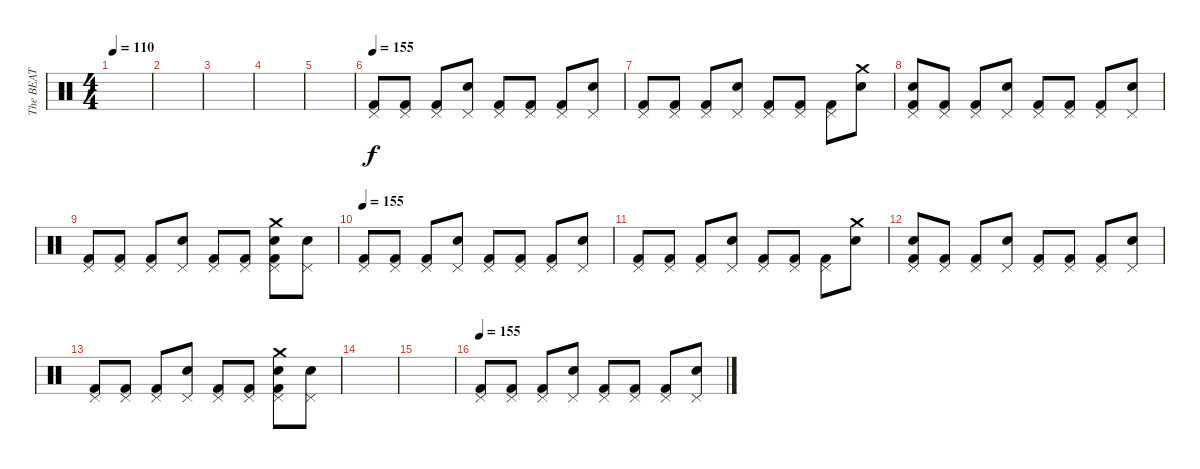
\track ("The BEAT" "The BEAT") {instrument percussion}
\staff {score}
\articulation defaults
\ts (4 4)
\tempo 110
\clef neutral
\ks c
|
|
|
|
|
\tempo 155
("Pedal Hi-Hat (hit)" "Kick (hit) 2").8 ("Pedal Hi-Hat (hit)" "Kick (hit) 2").8 ("Pedal Hi-Hat (hit)" "Kick (hit) 2").8 ("Pedal Hi-Hat (hit)" "Electric Snare (hit)").8 ("Pedal Hi-Hat (hit)" "Kick (hit) 2").8 ("Pedal Hi-Hat (hit)" "Kick (hit) 2").8 ("Pedal Hi-Hat (hit)" "Kick (hit) 2").8 ("Pedal Hi-Hat (hit)" "Electric Snare (hit)").8 |
("Pedal Hi-Hat (hit)" "Kick (hit) 2").8 ("Pedal Hi-Hat (hit)" "Kick (hit) 2").8 ("Pedal Hi-Hat (hit)" "Kick (hit) 2").8 ("Pedal Hi-Hat (hit)" "Electric Snare (hit)").8 ("Pedal Hi-Hat (hit)" "Kick (hit) 2").8 ("Pedal Hi-Hat (hit)" "Kick (hit) 2").8 ("Pedal Hi-Hat (hit)" "Kick (hit) 2").8 ("Crash medium (hit)" "Electric Snare (hit)").8 |
("Pedal Hi-Hat (hit)" "Electric Snare (hit)" "Kick (hit) 2").8 ("Pedal Hi-Hat (hit)" "Kick (hit) 2").8 ("Pedal Hi-Hat (hit)" "Kick (hit) 2").8 ("Pedal Hi-Hat (hit)" "Electric Snare (hit)").8 ("Pedal Hi-Hat (hit)" "Kick (hit) 2").8 ("Pedal Hi-Hat (hit)" "Kick (hit) 2").8 ("Pedal Hi-Hat (hit)" "Kick (hit) 2").8 ("Pedal Hi-Hat (hit)" "Electric Snare (hit)").8 |
("Pedal Hi-Hat (hit)" "Kick (hit) 2").8 ("Pedal Hi-Hat (hit)" "Kick (hit) 2").8 ("Pedal Hi-Hat (hit)" "Kick (hit) 2").8 ("Pedal Hi-Hat (hit)" "Electric Snare (hit)").8 ("Pedal Hi-Hat (hit)" "Kick (hit) 2").8 ("Pedal Hi-Hat (hit)" "Kick (hit) 2").8 ("Pedal Hi-Hat (hit)" "Crash medium (hit)" "Electric Snare (hit)" "Kick (hit) 2").8 ("Pedal Hi-Hat (hit)" "Electric Snare (hit)").8 |
\tempo 155
("Pedal Hi-Hat (hit)" "Kick (hit) 2").8 ("Pedal Hi-Hat (hit)" "Kick (hit) 2").8 ("Pedal Hi-Hat (hit)" "Kick (hit) 2").8 ("Pedal Hi-Hat (hit)" "Electric Snare (hit)").8 ("Pedal Hi-Hat (hit)" "Kick (hit) 2").8 ("Pedal Hi-Hat (hit)" "Kick (hit) 2").8 ("Pedal Hi-Hat (hit)" "Kick (hit) 2").8 ("Pedal Hi-Hat (hit)" "Electric Snare (hit)").8 |
("Pedal Hi-Hat (hit)" "Kick (hit) 2").8 ("Pedal Hi-Hat (hit)" "Kick (hit) 2").8 ("Pedal Hi-Hat (hit)" "Kick (hit) 2").8 ("Pedal Hi-Hat (hit)" "Electric Snare (hit)").8 ("Pedal Hi-Hat (hit)" "Kick (hit) 2").8 ("Pedal Hi-Hat (hit)" "Kick (hit) 2").8 ("Pedal Hi-Hat (hit)" "Kick (hit) 2").8 ("Crash medium (hit)" "Electric Snare (hit)").8 |
("Pedal Hi-Hat (hit)" "Electric Snare (hit)" "Kick (hit) 2").8 ("Pedal Hi-Hat (hit)" "Kick (hit) 2").8 ("Pedal Hi-Hat (hit)" "Kick (hit) 2").8 ("Pedal Hi-Hat (hit)" "Electric Snare (hit)").8 ("Pedal Hi-Hat (hit)" "Kick (hit) 2").8 ("Pedal Hi-Hat (hit)" "Kick (hit) 2").8 ("Pedal Hi-Hat (hit)" "Kick (hit) 2").8 ("Pedal Hi-Hat (hit)" "Electric Snare (hit)").8 |
("Pedal Hi-Hat (hit)" "Kick (hit) 2").8 ("Pedal Hi-Hat (hit)" "Kick (hit) 2").8 ("Pedal Hi-Hat (hit)" "Kick (hit) 2").8 ("Pedal Hi-Hat (hit)" "Electric Snare (hit)").8 ("Pedal Hi-Hat (hit)" "Kick (hit) 2").8 ("Pedal Hi-Hat (hit)" "Kick (hit) 2").8 ("Pedal Hi-Hat (hit)" "Crash medium (hit)" "Electric Snare (hit)" "Kick (hit) 2").8 ("Pedal Hi-Hat (hit)" "Electric Snare (hit)").8 |
|
|
\tempo 155
("Pedal Hi-Hat (hit)" "Kick (hit) 2").8 ("Pedal Hi-Hat (hit)" "Kick (hit) 2").8 ("Pedal Hi-Hat (hit)" "Kick (hit) 2").8 ("Pedal Hi-Hat (hit)" "Electric Snare (hit)").8 ("Pedal Hi-Hat (hit)" "Kick (hit) 2").8 ("Pedal Hi-Hat (hit)" "Kick (hit) 2").8 ("Pedal Hi-Hat (hit)" "Kick (hit) 2").8 ("Pedal Hi-Hat (hit)" "Electric Snare (hit)").8
